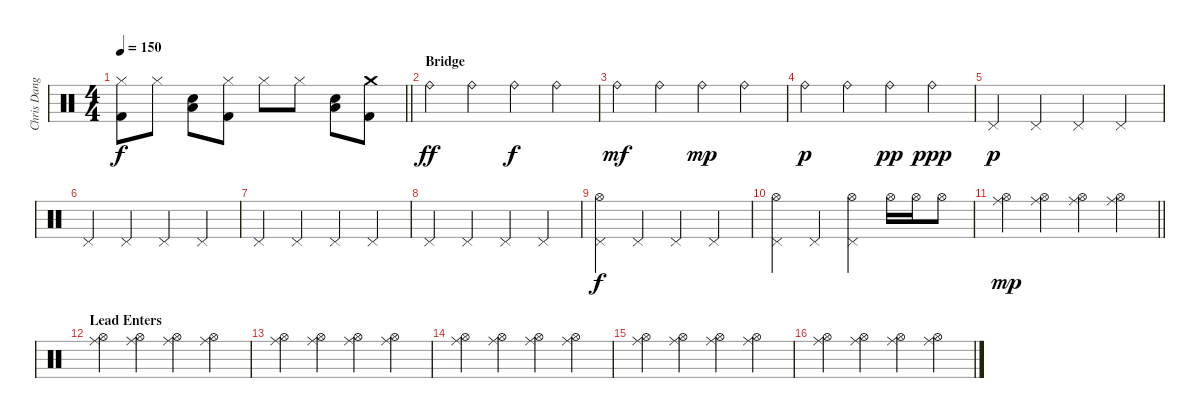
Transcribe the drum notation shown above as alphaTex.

\track ("Chris Dangerous" "Chris Dang") {instrument percussion}
\staff {score}
\articulation defaults
\ts (4 4)
\tempo 150
\clef neutral
\barLineRight lightlight
\ks c
("Hi-Hat (closed)" "Kick (hit) 2").8{dy f} "Hi-Hat (closed)".8 ("Low Floor Tom (hit)" "Snare (hit) 2").8 ("Hi-Hat (closed)" "Kick (hit) 2").8 "Hi-Hat (closed)".8 "Hi-Hat (closed)".8 ("Low Floor Tom (hit)" "Snare (hit) 2").8 ("Crash medium (hit)" "Kick (hit) 2").8 |
\section ("" "Bridge")
"Ride (bell)".4{dy ff} "Ride (bell)".4 "Ride (bell)".4{dy f} "Ride (bell)".4 |
"Ride (bell)".4{dy mf} "Ride (bell)".4 "Ride (bell)".4{dy mp} "Ride (bell)".4 |
"Ride (bell)".4{dy p} "Ride (bell)".4 "Ride (bell)".4{dy pp} "Ride (bell)".4{dy ppp} |
"Pedal Hi-Hat (hit)".4{dy p} "Pedal Hi-Hat (hit)".4 "Pedal Hi-Hat (hit)".4 "Pedal Hi-Hat (hit)".4 |
"Pedal Hi-Hat (hit)".4 "Pedal Hi-Hat (hit)".4 "Pedal Hi-Hat (hit)".4 "Pedal Hi-Hat (hit)".4 |
"Pedal Hi-Hat (hit)".4 "Pedal Hi-Hat (hit)".4 "Pedal Hi-Hat (hit)".4 "Pedal Hi-Hat (hit)".4 |
"Pedal Hi-Hat (hit)".4 "Pedal Hi-Hat (hit)".4 "Pedal Hi-Hat (hit)".4 "Pedal Hi-Hat (hit)".4 |
("Pedal Hi-Hat (hit)" "Hi-Hat (open)").4{dy f} "Pedal Hi-Hat (hit)".4 "Pedal Hi-Hat (hit)".4 "Pedal Hi-Hat (hit)".4 |
("Pedal Hi-Hat (hit)" "Hi-Hat (open)").4 "Pedal Hi-Hat (hit)".4 ("Pedal Hi-Hat (hit)" "Hi-Hat (open)").4 "Hi-Hat (open)".16 "Hi-Hat (open)".16 "Hi-Hat (open)".8 |
\barLineRight lightlight
("Hi-Hat (open)" "Ride (middle)").4{dy mp} ("Hi-Hat (open)" "Ride (middle)").4 ("Hi-Hat (open)" "Ride (middle)").4 ("Hi-Hat (open)" "Ride (middle)").4 |
\section ("" "Lead Enters")
("Hi-Hat (open)" "Ride (middle)").4 ("Hi-Hat (open)" "Ride (middle)").4 ("Hi-Hat (open)" "Ride (middle)").4 ("Hi-Hat (open)" "Ride (middle)").4 |
("Hi-Hat (open)" "Ride (middle)").4 ("Hi-Hat (open)" "Ride (middle)").4 ("Hi-Hat (open)" "Ride (middle)").4 ("Hi-Hat (open)" "Ride (middle)").4 |
("Hi-Hat (open)" "Ride (middle)").4 ("Hi-Hat (open)" "Ride (middle)").4 ("Hi-Hat (open)" "Ride (middle)").4 ("Hi-Hat (open)" "Ride (middle)").4 |
("Hi-Hat (open)" "Ride (middle)").4 ("Hi-Hat (open)" "Ride (middle)").4 ("Hi-Hat (open)" "Ride (middle)").4 ("Hi-Hat (open)" "Ride (middle)").4 |
("Hi-Hat (open)" "Ride (middle)").4 ("Hi-Hat (open)" "Ride (middle)").4 ("Hi-Hat (open)" "Ride (middle)").4 ("Hi-Hat (open)" "Ride (middle)").4
